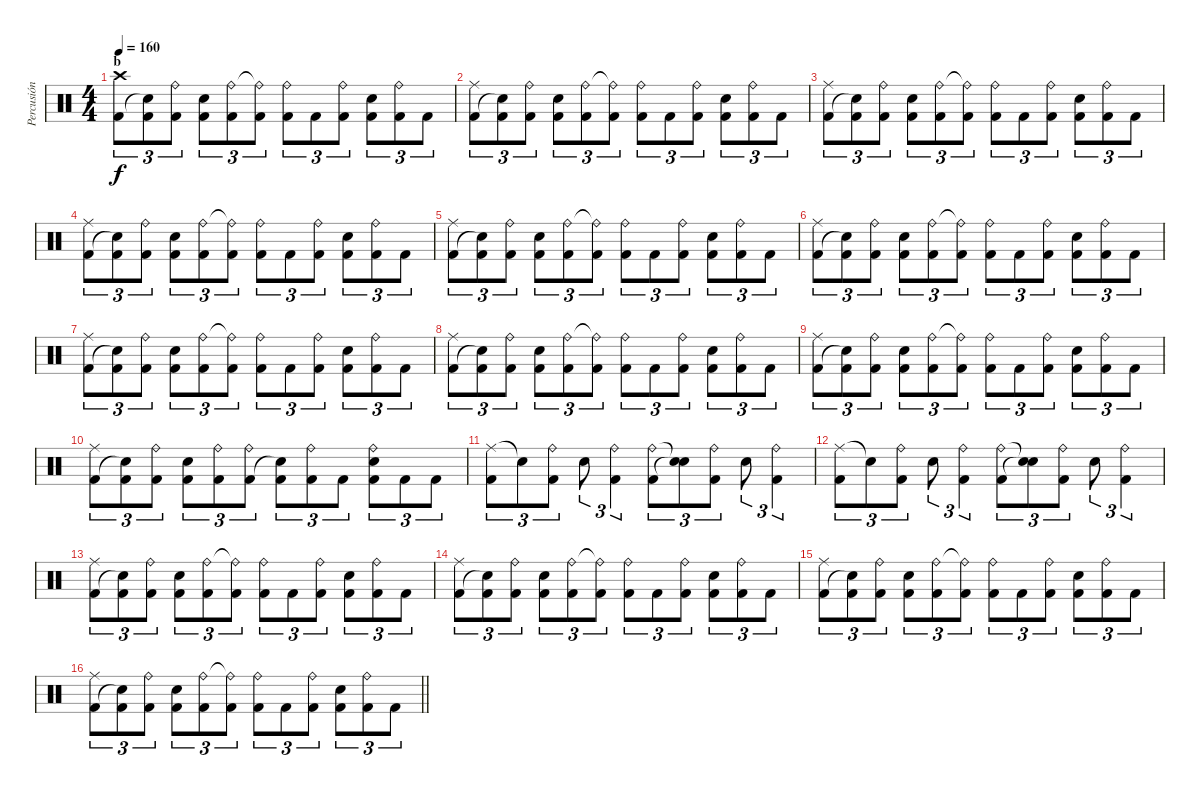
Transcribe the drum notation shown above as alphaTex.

\track ("Percusión" "Percusión") {instrument percussion}
\staff {score}
\articulation defaults
\ts (4 4)
\section ("" "b")
\tempo 160
\clef neutral
\ks c
("Crash high (hit)" "Kick (hit) 2").8{tu (3 2) dy f} ("Kick (hit) 2" "Snare (hit)"{t}).8{tu (3 2)} ("Ride (bell)" "Kick (hit) 2").8{tu (3 2)} ("Snare (hit) 2" "Kick (hit) 2").8{tu (3 2)} ("Ride (bell)" "Kick (hit) 2").8{tu (3 2)} ("Ride (bell)"{t} "Kick (hit) 2").8{tu (3 2)} ("Kick (hit) 2" "Ride (bell)").8{tu (3 2)} "Kick (hit) 2".8{tu (3 2)} ("Ride (bell)" "Kick (hit) 2").8{tu (3 2)} ("Kick (hit) 2" "Snare (hit) 2").8{tu (3 2)} ("Kick (hit) 2" "Ride (bell)").8{tu (3 2)} "Kick (hit) 2".8{tu (3 2)} |
("Ride (middle)" "Kick (hit) 2").8{tu (3 2)} ("Kick (hit) 2" "Snare (hit)"{t}).8{tu (3 2)} ("Ride (bell)" "Kick (hit) 2").8{tu (3 2)} ("Snare (hit) 2" "Kick (hit) 2").8{tu (3 2)} ("Ride (bell)" "Kick (hit) 2").8{tu (3 2)} ("Ride (bell)"{t} "Kick (hit) 2").8{tu (3 2)} ("Kick (hit) 2" "Ride (bell)").8{tu (3 2)} "Kick (hit) 2".8{tu (3 2)} ("Ride (bell)" "Kick (hit) 2").8{tu (3 2)} ("Kick (hit) 2" "Snare (hit) 2").8{tu (3 2)} ("Kick (hit) 2" "Ride (bell)").8{tu (3 2)} "Kick (hit) 2".8{tu (3 2)} |
("Ride (middle)" "Kick (hit) 2").8{tu (3 2)} ("Kick (hit) 2" "Snare (hit)"{t}).8{tu (3 2)} ("Ride (bell)" "Kick (hit) 2").8{tu (3 2)} ("Snare (hit) 2" "Kick (hit) 2").8{tu (3 2)} ("Ride (bell)" "Kick (hit) 2").8{tu (3 2)} ("Ride (bell)"{t} "Kick (hit) 2").8{tu (3 2)} ("Kick (hit) 2" "Ride (bell)").8{tu (3 2)} "Kick (hit) 2".8{tu (3 2)} ("Ride (bell)" "Kick (hit) 2").8{tu (3 2)} ("Kick (hit) 2" "Snare (hit) 2").8{tu (3 2)} ("Kick (hit) 2" "Ride (bell)").8{tu (3 2)} "Kick (hit) 2".8{tu (3 2)} |
("Ride (middle)" "Kick (hit) 2").8{tu (3 2)} ("Kick (hit) 2" "Snare (hit)"{t}).8{tu (3 2)} ("Ride (bell)" "Kick (hit) 2").8{tu (3 2)} ("Snare (hit) 2" "Kick (hit) 2").8{tu (3 2)} ("Ride (bell)" "Kick (hit) 2").8{tu (3 2)} ("Ride (bell)"{t} "Kick (hit) 2").8{tu (3 2)} ("Kick (hit) 2" "Ride (bell)").8{tu (3 2)} "Kick (hit) 2".8{tu (3 2)} ("Ride (bell)" "Kick (hit) 2").8{tu (3 2)} ("Kick (hit) 2" "Snare (hit) 2").8{tu (3 2)} ("Kick (hit) 2" "Ride (bell)").8{tu (3 2)} "Kick (hit) 2".8{tu (3 2)} |
("Ride (middle)" "Kick (hit) 2").8{tu (3 2)} ("Kick (hit) 2" "Snare (hit)"{t}).8{tu (3 2)} ("Ride (bell)" "Kick (hit) 2").8{tu (3 2)} ("Snare (hit) 2" "Kick (hit) 2").8{tu (3 2)} ("Ride (bell)" "Kick (hit) 2").8{tu (3 2)} ("Ride (bell)"{t} "Kick (hit) 2").8{tu (3 2)} ("Kick (hit) 2" "Ride (bell)").8{tu (3 2)} "Kick (hit) 2".8{tu (3 2)} ("Ride (bell)" "Kick (hit) 2").8{tu (3 2)} ("Kick (hit) 2" "Snare (hit) 2").8{tu (3 2)} ("Kick (hit) 2" "Ride (bell)").8{tu (3 2)} "Kick (hit) 2".8{tu (3 2)} |
("Ride (middle)" "Kick (hit) 2").8{tu (3 2)} ("Kick (hit) 2" "Snare (hit)"{t}).8{tu (3 2)} ("Ride (bell)" "Kick (hit) 2").8{tu (3 2)} ("Snare (hit) 2" "Kick (hit) 2").8{tu (3 2)} ("Ride (bell)" "Kick (hit) 2").8{tu (3 2)} ("Ride (bell)"{t} "Kick (hit) 2").8{tu (3 2)} ("Kick (hit) 2" "Ride (bell)").8{tu (3 2)} "Kick (hit) 2".8{tu (3 2)} ("Ride (bell)" "Kick (hit) 2").8{tu (3 2)} ("Kick (hit) 2" "Snare (hit) 2").8{tu (3 2)} ("Kick (hit) 2" "Ride (bell)").8{tu (3 2)} "Kick (hit) 2".8{tu (3 2)} |
("Ride (middle)" "Kick (hit) 2").8{tu (3 2)} ("Kick (hit) 2" "Snare (hit)"{t}).8{tu (3 2)} ("Ride (bell)" "Kick (hit) 2").8{tu (3 2)} ("Snare (hit) 2" "Kick (hit) 2").8{tu (3 2)} ("Ride (bell)" "Kick (hit) 2").8{tu (3 2)} ("Ride (bell)"{t} "Kick (hit) 2").8{tu (3 2)} ("Kick (hit) 2" "Ride (bell)").8{tu (3 2)} "Kick (hit) 2".8{tu (3 2)} ("Ride (bell)" "Kick (hit) 2").8{tu (3 2)} ("Kick (hit) 2" "Snare (hit) 2").8{tu (3 2)} ("Kick (hit) 2" "Ride (bell)").8{tu (3 2)} "Kick (hit) 2".8{tu (3 2)} |
("Ride (middle)" "Kick (hit) 2").8{tu (3 2)} ("Kick (hit) 2" "Snare (hit)"{t}).8{tu (3 2)} ("Ride (bell)" "Kick (hit) 2").8{tu (3 2)} ("Snare (hit) 2" "Kick (hit) 2").8{tu (3 2)} ("Ride (bell)" "Kick (hit) 2").8{tu (3 2)} ("Ride (bell)"{t} "Kick (hit) 2").8{tu (3 2)} ("Kick (hit) 2" "Ride (bell)").8{tu (3 2)} "Kick (hit) 2".8{tu (3 2)} ("Ride (bell)" "Kick (hit) 2").8{tu (3 2)} ("Kick (hit) 2" "Snare (hit) 2").8{tu (3 2)} ("Kick (hit) 2" "Ride (bell)").8{tu (3 2)} "Kick (hit) 2".8{tu (3 2)} |
("Ride (middle)" "Kick (hit) 2").8{tu (3 2)} ("Kick (hit) 2" "Snare (hit)"{t}).8{tu (3 2)} ("Ride (bell)" "Kick (hit) 2").8{tu (3 2)} ("Snare (hit) 2" "Kick (hit) 2").8{tu (3 2)} ("Ride (bell)" "Kick (hit) 2").8{tu (3 2)} ("Ride (bell)"{t} "Kick (hit) 2").8{tu (3 2)} ("Kick (hit) 2" "Ride (bell)").8{tu (3 2)} "Kick (hit) 2".8{tu (3 2)} ("Ride (bell)" "Kick (hit) 2").8{tu (3 2)} ("Kick (hit) 2" "Snare (hit) 2").8{tu (3 2)} ("Kick (hit) 2" "Ride (bell)").8{tu (3 2)} "Kick (hit) 2".8{tu (3 2)} |
("Ride (middle)" "Kick (hit) 2").8{tu (3 2)} ("Kick (hit) 2" "Snare (hit)"{t}).8{tu (3 2)} ("Ride (bell)" "Kick (hit) 2").8{tu (3 2)} ("Snare (hit) 2" "Kick (hit) 2").8{tu (3 2)} ("Ride (bell)" "Kick (hit) 2").8{tu (3 2)} ("Ride (bell)" "Kick (hit) 2").8{tu (3 2)} ("Kick (hit) 2" "Snare (hit)"{t}).8{tu (3 2)} ("Ride (bell)" "Kick (hit) 2").8{tu (3 2)} "Kick (hit) 2".8{tu (3 2)} ("Ride (bell)" "Kick (hit) 2" "Snare (hit) 2").8{tu (3 2)} "Kick (hit) 2".8{tu (3 2)} "Kick (hit) 2".8{tu (3 2)} |
("Ride (middle)" "Kick (hit) 2").8{tu (3 2)} "Snare (hit)"{t}.8{tu (3 2)} ("Ride (bell)" "Kick (hit) 2").8{tu (3 2)} "Snare (hit) 2".8{tu (3 2)} ("Ride (bell)" "Kick (hit) 2").4{tu (3 2)} ("Ride (bell)" "Kick (hit) 2").8{tu (3 2)} ("Snare (hit)"{t} "Snare (hit)"{t}).8{tu (3 2)} ("Ride (bell)" "Kick (hit) 2").8{tu (3 2)} "Snare (hit) 2".8{tu (3 2)} ("Ride (bell)" "Kick (hit) 2").4{tu (3 2)} |
("Ride (middle)" "Kick (hit) 2").8{tu (3 2)} "Snare (hit)"{t}.8{tu (3 2)} ("Ride (bell)" "Kick (hit) 2").8{tu (3 2)} "Snare (hit) 2".8{tu (3 2)} ("Ride (bell)" "Kick (hit) 2").4{tu (3 2)} ("Ride (bell)" "Kick (hit) 2").8{tu (3 2)} ("Snare (hit)"{t} "Snare (hit)"{t}).8{tu (3 2)} ("Ride (bell)" "Kick (hit) 2").8{tu (3 2)} "Snare (hit) 2".8{tu (3 2)} ("Ride (bell)" "Kick (hit) 2").4{tu (3 2)} |
("Ride (middle)" "Kick (hit) 2").8{tu (3 2)} ("Kick (hit) 2" "Snare (hit)"{t}).8{tu (3 2)} ("Ride (bell)" "Kick (hit) 2").8{tu (3 2)} ("Snare (hit) 2" "Kick (hit) 2").8{tu (3 2)} ("Ride (bell)" "Kick (hit) 2").8{tu (3 2)} ("Ride (bell)"{t} "Kick (hit) 2").8{tu (3 2)} ("Kick (hit) 2" "Ride (bell)").8{tu (3 2)} "Kick (hit) 2".8{tu (3 2)} ("Ride (bell)" "Kick (hit) 2").8{tu (3 2)} ("Kick (hit) 2" "Snare (hit) 2").8{tu (3 2)} ("Kick (hit) 2" "Ride (bell)").8{tu (3 2)} "Kick (hit) 2".8{tu (3 2)} |
("Ride (middle)" "Kick (hit) 2").8{tu (3 2)} ("Kick (hit) 2" "Snare (hit)"{t}).8{tu (3 2)} ("Ride (bell)" "Kick (hit) 2").8{tu (3 2)} ("Snare (hit) 2" "Kick (hit) 2").8{tu (3 2)} ("Ride (bell)" "Kick (hit) 2").8{tu (3 2)} ("Ride (bell)"{t} "Kick (hit) 2").8{tu (3 2)} ("Kick (hit) 2" "Ride (bell)").8{tu (3 2)} "Kick (hit) 2".8{tu (3 2)} ("Ride (bell)" "Kick (hit) 2").8{tu (3 2)} ("Kick (hit) 2" "Snare (hit) 2").8{tu (3 2)} ("Kick (hit) 2" "Ride (bell)").8{tu (3 2)} "Kick (hit) 2".8{tu (3 2)} |
("Ride (middle)" "Kick (hit) 2").8{tu (3 2)} ("Kick (hit) 2" "Snare (hit)"{t}).8{tu (3 2)} ("Ride (bell)" "Kick (hit) 2").8{tu (3 2)} ("Snare (hit) 2" "Kick (hit) 2").8{tu (3 2)} ("Ride (bell)" "Kick (hit) 2").8{tu (3 2)} ("Ride (bell)"{t} "Kick (hit) 2").8{tu (3 2)} ("Kick (hit) 2" "Ride (bell)").8{tu (3 2)} "Kick (hit) 2".8{tu (3 2)} ("Ride (bell)" "Kick (hit) 2").8{tu (3 2)} ("Kick (hit) 2" "Snare (hit) 2").8{tu (3 2)} ("Kick (hit) 2" "Ride (bell)").8{tu (3 2)} "Kick (hit) 2".8{tu (3 2)} |
\barLineRight lightlight
("Ride (middle)" "Kick (hit) 2").8{tu (3 2)} ("Kick (hit) 2" "Snare (hit)"{t}).8{tu (3 2)} ("Ride (bell)" "Kick (hit) 2").8{tu (3 2)} ("Snare (hit) 2" "Kick (hit) 2").8{tu (3 2)} ("Ride (bell)" "Kick (hit) 2").8{tu (3 2)} ("Ride (bell)"{t} "Kick (hit) 2").8{tu (3 2)} ("Kick (hit) 2" "Ride (bell)").8{tu (3 2)} "Kick (hit) 2".8{tu (3 2)} ("Ride (bell)" "Kick (hit) 2").8{tu (3 2)} ("Kick (hit) 2" "Snare (hit) 2").8{tu (3 2)} ("Kick (hit) 2" "Ride (bell)").8{tu (3 2)} "Kick (hit) 2".8{tu (3 2)}
